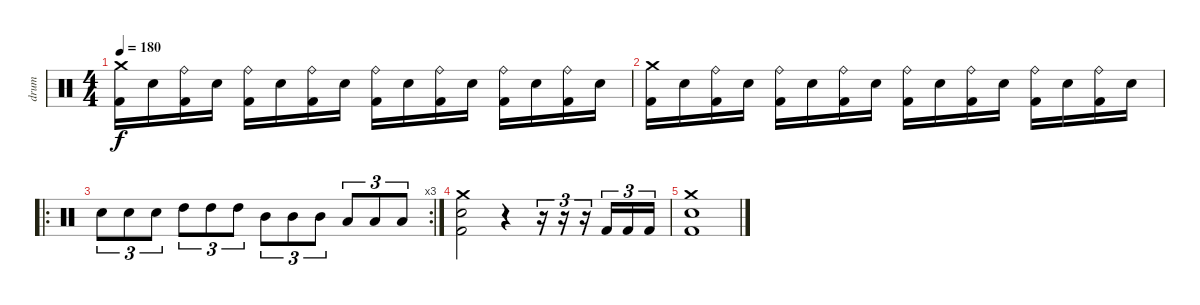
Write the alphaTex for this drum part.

\track ("drum" "drum") {instrument percussion}
\staff {score}
\articulation defaults
\ts (4 4)
\tempo 180
\clef neutral
\ks c
("Crash medium (hit)" "Kick (hit) 2").16{dy f} "Electric Snare (hit)".16 ("Ride (bell)" "Kick (hit) 2").16 "Electric Snare (hit)".16 ("Ride (bell)" "Kick (hit) 2").16 "Electric Snare (hit)".16 ("Ride (bell)" "Kick (hit) 2").16 "Electric Snare (hit)".16 ("Ride (bell)" "Kick (hit) 2").16 "Electric Snare (hit)".16 ("Ride (bell)" "Kick (hit) 2").16 "Electric Snare (hit)".16 ("Ride (bell)" "Kick (hit) 2").16 "Electric Snare (hit)".16 ("Ride (bell)" "Kick (hit) 2").16 "Electric Snare (hit)".16 |
("Crash medium (hit)" "Kick (hit) 2").16 "Electric Snare (hit)".16 ("Ride (bell)" "Kick (hit) 2").16 "Electric Snare (hit)".16 ("Ride (bell)" "Kick (hit) 2").16 "Electric Snare (hit)".16 ("Ride (bell)" "Kick (hit) 2").16 "Electric Snare (hit)".16 ("Ride (bell)" "Kick (hit) 2").16 "Electric Snare (hit)".16 ("Ride (bell)" "Kick (hit) 2").16 "Electric Snare (hit)".16 ("Ride (bell)" "Kick (hit) 2").16 "Electric Snare (hit)".16 ("Ride (bell)" "Kick (hit) 2").16 "Electric Snare (hit)".16 |
\ro
\rc 3 "Electric Snare (hit)".8{tu (3 2)} "Electric Snare (hit)".8{tu (3 2)} "Electric Snare (hit)".8{tu (3 2)} "High Tom (hit)".8{tu (3 2)} "High Tom (hit)".8{tu (3 2)} "High Tom (hit)".8{tu (3 2)} "Mid Tom (hit)".8{tu (3 2)} "Mid Tom (hit)".8{tu (3 2)} "Mid Tom (hit)".8{tu (3 2)} "Low Tom (hit)".8{tu (3 2)} "Low Tom (hit)".8{tu (3 2)} "Low Tom (hit)".8{tu (3 2)}
|
("Crash medium (hit)" "Electric Snare (hit)" "Kick (hit) 2").2 r.4 r.16{tu (3 2)} r.16{tu (3 2)} r.16{tu (3 2)} "Kick (hit) 2".16{tu (3 2)} "Kick (hit) 2".16{tu (3 2)} "Kick (hit) 2".16{tu (3 2)} |
("Crash medium (hit)" "Electric Snare (hit)" "Kick (hit) 2").1
